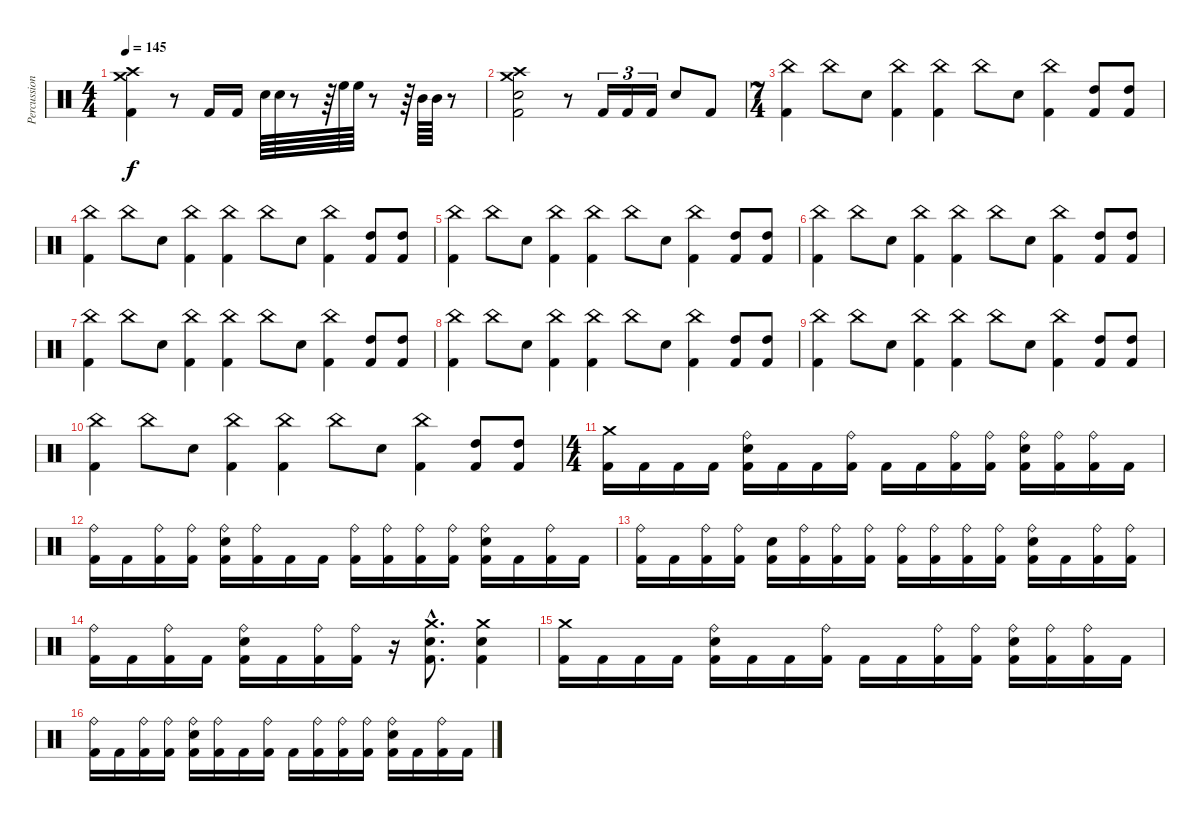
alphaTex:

\track ("Percussion" "Percussion") {instrument percussion}
\staff {score}
\articulation defaults
\ts (4 4)
\tempo 145
\clef neutral
\ks c
("Crash high (hit)" "Crash medium (hit)" "Kick (hit) 2").4{dy f} r.8 "Kick (hit) 2".16 "Kick (hit) 2".16 "Electric Snare (hit)".64 "Electric Snare (hit)".64 r.8 r.64 "High Floor Tom (hit)".64 "High Floor Tom (hit)".64 r.8 r.64 "Mid Tom (hit)".64 "Mid Tom (hit)".64 r.8 |
("Crash high (hit)" "Crash medium (hit)" "Electric Snare (hit)" "Kick (hit) 2").2 r.8 "Kick (hit) 2".16{tu (3 2)} "Kick (hit) 2".16{tu (3 2)} "Kick (hit) 2".16{tu (3 2)} "Electric Snare (hit)".8 "Kick (hit) 2".8 |
\ts (7 4)
("China (hit)" "Kick (hit) 2").4 "China (hit)".8 "Electric Snare (hit)".8 ("China (hit)" "Kick (hit) 2").4 ("China (hit)" "Kick (hit) 2").4 "China (hit)".8 "Electric Snare (hit)".8 ("China (hit)" "Kick (hit) 2").4 ("High Tom (hit)" "Kick (hit) 2").8 ("High Tom (hit)" "Kick (hit) 2").8 |
("China (hit)" "Kick (hit) 2").4 "China (hit)".8 "Electric Snare (hit)".8 ("China (hit)" "Kick (hit) 2").4 ("China (hit)" "Kick (hit) 2").4 "China (hit)".8 "Electric Snare (hit)".8 ("China (hit)" "Kick (hit) 2").4 ("High Tom (hit)" "Kick (hit) 2").8 ("High Tom (hit)" "Kick (hit) 2").8 |
("China (hit)" "Kick (hit) 2").4 "China (hit)".8 "Electric Snare (hit)".8 ("China (hit)" "Kick (hit) 2").4 ("China (hit)" "Kick (hit) 2").4 "China (hit)".8 "Electric Snare (hit)".8 ("China (hit)" "Kick (hit) 2").4 ("High Tom (hit)" "Kick (hit) 2").8 ("High Tom (hit)" "Kick (hit) 2").8 |
("China (hit)" "Kick (hit) 2").4 "China (hit)".8 "Electric Snare (hit)".8 ("China (hit)" "Kick (hit) 2").4 ("China (hit)" "Kick (hit) 2").4 "China (hit)".8 "Electric Snare (hit)".8 ("China (hit)" "Kick (hit) 2").4 ("High Tom (hit)" "Kick (hit) 2").8 ("High Tom (hit)" "Kick (hit) 2").8 |
("China (hit)" "Kick (hit) 2").4 "China (hit)".8 "Electric Snare (hit)".8 ("China (hit)" "Kick (hit) 2").4 ("China (hit)" "Kick (hit) 2").4 "China (hit)".8 "Electric Snare (hit)".8 ("China (hit)" "Kick (hit) 2").4 ("High Tom (hit)" "Kick (hit) 2").8 ("High Tom (hit)" "Kick (hit) 2").8 |
("China (hit)" "Kick (hit) 2").4 "China (hit)".8 "Electric Snare (hit)".8 ("China (hit)" "Kick (hit) 2").4 ("China (hit)" "Kick (hit) 2").4 "China (hit)".8 "Electric Snare (hit)".8 ("China (hit)" "Kick (hit) 2").4 ("High Tom (hit)" "Kick (hit) 2").8 ("High Tom (hit)" "Kick (hit) 2").8 |
("China (hit)" "Kick (hit) 2").4 "China (hit)".8 "Electric Snare (hit)".8 ("China (hit)" "Kick (hit) 2").4 ("China (hit)" "Kick (hit) 2").4 "China (hit)".8 "Electric Snare (hit)".8 ("China (hit)" "Kick (hit) 2").4 ("High Tom (hit)" "Kick (hit) 2").8 ("High Tom (hit)" "Kick (hit) 2").8 |
("China (hit)" "Kick (hit) 2").4 "China (hit)".8 "Electric Snare (hit)".8 ("China (hit)" "Kick (hit) 2").4 ("China (hit)" "Kick (hit) 2").4 "China (hit)".8 "Electric Snare (hit)".8 ("China (hit)" "Kick (hit) 2").4 ("High Tom (hit)" "Kick (hit) 2").8 ("High Tom (hit)" "Kick (hit) 2").8 |
\ts (4 4)
("Crash medium (hit)" "Kick (hit) 2").16 "Kick (hit) 2".16 "Kick (hit) 2".16 "Kick (hit) 2".16 ("Ride (bell)" "Electric Snare (hit)" "Kick (hit) 2").16 "Kick (hit) 2".16 "Kick (hit) 2".16 ("Ride (bell)" "Kick (hit) 2").16 "Kick (hit) 2".16 "Kick (hit) 2".16 ("Ride (bell)" "Kick (hit) 2").16 ("Ride (bell)" "Kick (hit) 2").16 ("Ride (bell)" "Electric Snare (hit)" "Kick (hit) 2").16 ("Ride (bell)" "Kick (hit) 2").16 ("Ride (bell)" "Kick (hit) 2").16 "Kick (hit) 2".16 |
("Ride (bell)" "Kick (hit) 2").16 "Kick (hit) 2".16 ("Ride (bell)" "Kick (hit) 2").16 ("Ride (bell)" "Kick (hit) 2").16 ("Ride (bell)" "Electric Snare (hit)" "Kick (hit) 2").16 ("Ride (bell)" "Kick (hit) 2").16 "Kick (hit) 2".16 "Kick (hit) 2".16 ("Ride (bell)" "Kick (hit) 2").16 ("Ride (bell)" "Kick (hit) 2").16 ("Ride (bell)" "Kick (hit) 2").16 ("Ride (bell)" "Kick (hit) 2").16 ("Ride (bell)" "Electric Snare (hit)" "Kick (hit) 2").16 "Kick (hit) 2".16 ("Ride (bell)" "Kick (hit) 2").16 "Kick (hit) 2".16 |
("Ride (bell)" "Kick (hit) 2").16 "Kick (hit) 2".16 ("Ride (bell)" "Kick (hit) 2").16 ("Ride (bell)" "Kick (hit) 2").16 ("Electric Snare (hit)" "Kick (hit) 2").16 ("Ride (bell)" "Kick (hit) 2").16 ("Ride (bell)" "Kick (hit) 2").16 ("Ride (bell)" "Kick (hit) 2").16 ("Ride (bell)" "Kick (hit) 2").16 ("Ride (bell)" "Kick (hit) 2").16 ("Ride (bell)" "Kick (hit) 2").16 ("Ride (bell)" "Kick (hit) 2").16 ("Ride (bell)" "Electric Snare (hit)" "Kick (hit) 2").16 "Kick (hit) 2".16 ("Ride (bell)" "Kick (hit) 2").16 ("Ride (bell)" "Kick (hit) 2").16 |
("Ride (bell)" "Kick (hit) 2").16 "Kick (hit) 2".16 ("Ride (bell)" "Kick (hit) 2").16 "Kick (hit) 2".16 ("Ride (bell)" "Electric Snare (hit)" "Kick (hit) 2").16 "Kick (hit) 2".16 ("Ride (bell)" "Kick (hit) 2").16 ("Ride (bell)" "Kick (hit) 2").16 r.16 ("Crash medium (hit)"{hac} "Electric Snare (hit)"{hac} "Kick (hit) 2"{hac}).8{d} ("Crash medium (hit)" "Electric Snare (hit)" "Kick (hit) 2").4 |
("Crash medium (hit)" "Kick (hit) 2").16 "Kick (hit) 2".16 "Kick (hit) 2".16 "Kick (hit) 2".16 ("Ride (bell)" "Electric Snare (hit)" "Kick (hit) 2").16 "Kick (hit) 2".16 "Kick (hit) 2".16 ("Ride (bell)" "Kick (hit) 2").16 "Kick (hit) 2".16 "Kick (hit) 2".16 ("Ride (bell)" "Kick (hit) 2").16 ("Ride (bell)" "Kick (hit) 2").16 ("Ride (bell)" "Electric Snare (hit)" "Kick (hit) 2").16 ("Ride (bell)" "Kick (hit) 2").16 ("Ride (bell)" "Kick (hit) 2").16 "Kick (hit) 2".16 |
("Ride (bell)" "Kick (hit) 2").16 "Kick (hit) 2".16 ("Ride (bell)" "Kick (hit) 2").16 ("Ride (bell)" "Kick (hit) 2").16 ("Ride (bell)" "Electric Snare (hit)" "Kick (hit) 2").16 ("Ride (bell)" "Kick (hit) 2").16 "Kick (hit) 2".16 ("Ride (bell)" "Kick (hit) 2").16 "Kick (hit) 2".16 ("Ride (bell)" "Kick (hit) 2").16 ("Ride (bell)" "Kick (hit) 2").16 ("Ride (bell)" "Kick (hit) 2").16 ("Ride (bell)" "Electric Snare (hit)" "Kick (hit) 2").16 "Kick (hit) 2".16 ("Ride (bell)" "Kick (hit) 2").16 "Kick (hit) 2".16
